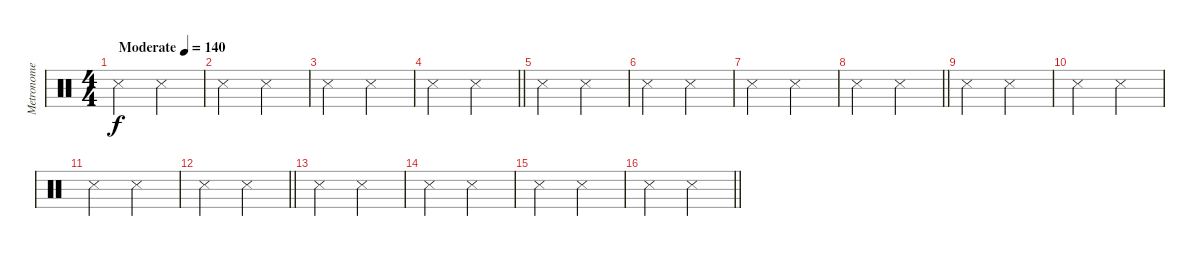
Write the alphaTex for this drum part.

\track ("Metronome" "Metronome") {instrument percussion}
\staff {score}
\articulation defaults
\ts (4 4)
\tempo (140 "Moderate")
\clef neutral
\ks c "Snare (side stick) 3".2{dy f} "Snare (side stick) 3".2
|
"Snare (side stick) 3".2 "Snare (side stick) 3".2 |
"Snare (side stick) 3".2 "Snare (side stick) 3".2 |
\barLineRight lightlight "Snare (side stick) 3".2 "Snare (side stick) 3".2
|
"Snare (side stick) 3".2 "Snare (side stick) 3".2 |
"Snare (side stick) 3".2 "Snare (side stick) 3".2 |
"Snare (side stick) 3".2 "Snare (side stick) 3".2 |
\barLineRight lightlight "Snare (side stick) 3".2 "Snare (side stick) 3".2
|
"Snare (side stick) 3".2 "Snare (side stick) 3".2 |
"Snare (side stick) 3".2 "Snare (side stick) 3".2 |
"Snare (side stick) 3".2 "Snare (side stick) 3".2 |
\barLineRight lightlight "Snare (side stick) 3".2 "Snare (side stick) 3".2
|
"Snare (side stick) 3".2 "Snare (side stick) 3".2 |
"Snare (side stick) 3".2 "Snare (side stick) 3".2 |
"Snare (side stick) 3".2 "Snare (side stick) 3".2 |
\barLineRight lightlight "Snare (side stick) 3".2 "Snare (side stick) 3".2
